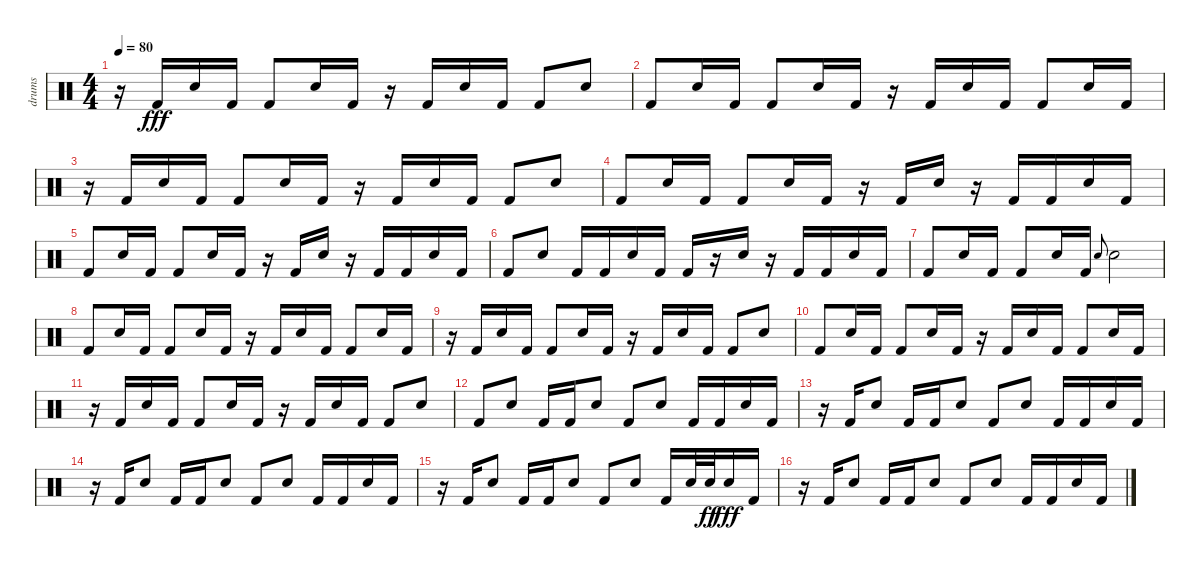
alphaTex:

\track ("drums" "drums") {instrument percussion}
\staff {score}
\articulation defaults
\ts (4 4)
\tempo 80
\clef neutral
\ks c
r.16{dy fff} "Kick (hit) 2".16 "Electric Snare (hit)".16 "Kick (hit) 2".16 "Kick (hit) 2".8 "Electric Snare (hit)".16 "Kick (hit) 2".16 r.16 "Kick (hit) 2".16 "Electric Snare (hit)".16 "Kick (hit) 2".16 "Kick (hit) 2".8 "Electric Snare (hit)".8 |
"Kick (hit) 2".8 "Electric Snare (hit)".16 "Kick (hit) 2".16 "Kick (hit) 2".8 "Electric Snare (hit)".16 "Kick (hit) 2".16 r.16 "Kick (hit) 2".16 "Electric Snare (hit)".16 "Kick (hit) 2".16 "Kick (hit) 2".8 "Electric Snare (hit)".16 "Kick (hit) 2".16 |
r.16 "Kick (hit) 2".16 "Electric Snare (hit)".16 "Kick (hit) 2".16 "Kick (hit) 2".8 "Electric Snare (hit)".16 "Kick (hit) 2".16 r.16 "Kick (hit) 2".16 "Electric Snare (hit)".16 "Kick (hit) 2".16 "Kick (hit) 2".8 "Electric Snare (hit)".8 |
"Kick (hit) 2".8 "Electric Snare (hit)".16 "Kick (hit) 2".16 "Kick (hit) 2".8 "Electric Snare (hit)".16 "Kick (hit) 2".16 r.16 "Kick (hit) 2".16 "Electric Snare (hit)".16 r.16 "Kick (hit) 2".16 "Kick (hit) 2".16 "Electric Snare (hit)".16 "Kick (hit) 2".16 |
"Kick (hit) 2".8 "Electric Snare (hit)".16 "Kick (hit) 2".16 "Kick (hit) 2".8 "Electric Snare (hit)".16 "Kick (hit) 2".16 r.16 "Kick (hit) 2".16 "Electric Snare (hit)".16 r.16 "Kick (hit) 2".16 "Kick (hit) 2".16 "Electric Snare (hit)".16 "Kick (hit) 2".16 |
"Kick (hit) 2".8 "Electric Snare (hit)".8 "Kick (hit) 2".16 "Kick (hit) 2".16 "Electric Snare (hit)".16 "Kick (hit) 2".16 "Kick (hit) 2".16 r.16 "Electric Snare (hit)".16 r.16 "Kick (hit) 2".16 "Kick (hit) 2".16 "Electric Snare (hit)".16 "Kick (hit) 2".16 |
"Kick (hit) 2".8 "Electric Snare (hit)".16 "Kick (hit) 2".16 "Kick (hit) 2".8 "Electric Snare (hit)".16 "Kick (hit) 2".16 "Electric Snare (hit)".8{gr onbeat} "Electric Snare (hit)".2 |
"Kick (hit) 2".8 "Electric Snare (hit)".16 "Kick (hit) 2".16 "Kick (hit) 2".8 "Electric Snare (hit)".16 "Kick (hit) 2".16 r.16 "Kick (hit) 2".16 "Electric Snare (hit)".16 "Kick (hit) 2".16 "Kick (hit) 2".8 "Electric Snare (hit)".16 "Kick (hit) 2".16 |
r.16 "Kick (hit) 2".16 "Electric Snare (hit)".16 "Kick (hit) 2".16 "Kick (hit) 2".8 "Electric Snare (hit)".16 "Kick (hit) 2".16 r.16 "Kick (hit) 2".16 "Electric Snare (hit)".16 "Kick (hit) 2".16 "Kick (hit) 2".8 "Electric Snare (hit)".8 |
"Kick (hit) 2".8 "Electric Snare (hit)".16 "Kick (hit) 2".16 "Kick (hit) 2".8 "Electric Snare (hit)".16 "Kick (hit) 2".16 r.16 "Kick (hit) 2".16 "Electric Snare (hit)".16 "Kick (hit) 2".16 "Kick (hit) 2".8 "Electric Snare (hit)".16 "Kick (hit) 2".16 |
r.16 "Kick (hit) 2".16 "Electric Snare (hit)".16 "Kick (hit) 2".16 "Kick (hit) 2".8 "Electric Snare (hit)".16 "Kick (hit) 2".16 r.16 "Kick (hit) 2".16 "Electric Snare (hit)".16 "Kick (hit) 2".16 "Kick (hit) 2".8 "Electric Snare (hit)".8 |
"Kick (hit) 2".8 "Electric Snare (hit)".8 "Kick (hit) 2".16 "Kick (hit) 2".16 "Electric Snare (hit)".8 "Kick (hit) 2".8 "Electric Snare (hit)".8 "Kick (hit) 2".16 "Kick (hit) 2".16 "Electric Snare (hit)".16 "Kick (hit) 2".16 |
r.16 "Kick (hit) 2".16 "Electric Snare (hit)".8 "Kick (hit) 2".16 "Kick (hit) 2".16 "Electric Snare (hit)".8 "Kick (hit) 2".8 "Electric Snare (hit)".8 "Kick (hit) 2".16 "Kick (hit) 2".16 "Electric Snare (hit)".16 "Kick (hit) 2".16 |
r.16 "Kick (hit) 2".16 "Electric Snare (hit)".8 "Kick (hit) 2".16 "Kick (hit) 2".16 "Electric Snare (hit)".8 "Kick (hit) 2".8 "Electric Snare (hit)".8 "Kick (hit) 2".16 "Kick (hit) 2".16 "Electric Snare (hit)".16 "Kick (hit) 2".16 |
r.16 "Kick (hit) 2".16 "Electric Snare (hit)".8 "Kick (hit) 2".16 "Kick (hit) 2".16 "Electric Snare (hit)".8 "Kick (hit) 2".8 "Electric Snare (hit)".8 "Kick (hit) 2".16 "Electric Snare (hit)".32 "Electric Snare (hit)".32{dy ff} "Electric Snare (hit)".16{dy fff} "Kick (hit) 2".16 |
r.16 "Kick (hit) 2".16 "Electric Snare (hit)".8 "Kick (hit) 2".16 "Kick (hit) 2".16 "Electric Snare (hit)".8 "Kick (hit) 2".8 "Electric Snare (hit)".8 "Kick (hit) 2".16 "Kick (hit) 2".16 "Electric Snare (hit)".16 "Kick (hit) 2".16
